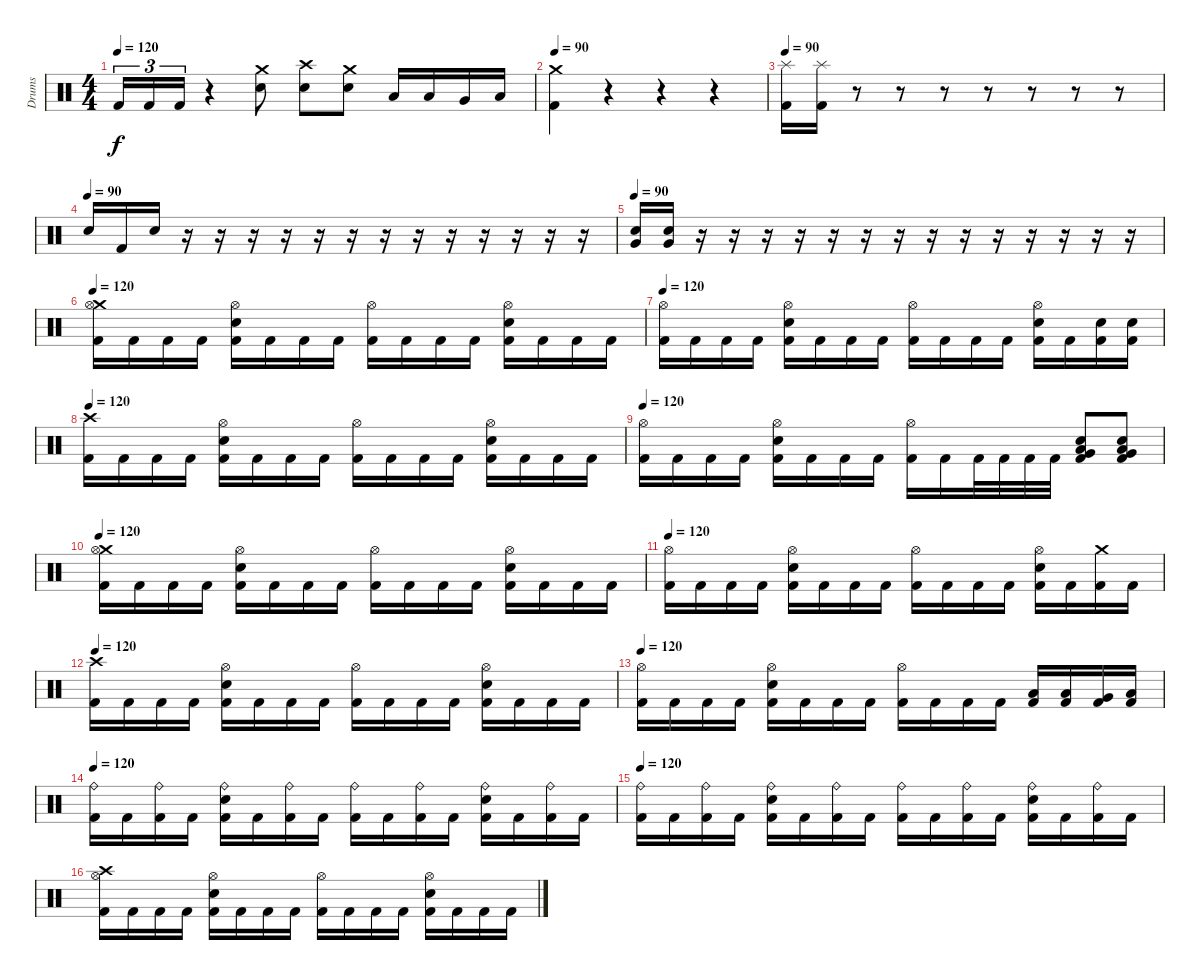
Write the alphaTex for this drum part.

\track ("Drums" "Drums") {instrument percussion}
\staff {score}
\articulation defaults
\ts (4 4)
\tempo 120
\clef neutral
\ks c "Kick (hit) 2".16{tu (3 2) dy f} "Kick (hit) 2".16{tu (3 2)} "Kick (hit) 2".16{tu (3 2)}
r.4 ("Crash medium (hit)" "Electric Snare (hit)").8 ("Crash high (hit)" "Electric Snare (hit)").8 ("Crash medium (hit)" "Electric Snare (hit)").8 "Low Tom (hit)".16 "Low Tom (hit)".16 "Very Low Tom (hit)".16 "Low Floor Tom (hit)".16 |
\tempo 90
("Crash medium (hit)" "Kick (hit) 2").4 r.4 r.4 r.4 |
\tempo 90
("Splash (hit)" "Kick (hit) 2").16 ("Splash (hit)" "Kick (hit) 2").16 r.8 r.8 r.8 r.8 r.8 r.8 r.8 |
\tempo (90)
"Electric Snare (hit)".16 "Kick (hit) 2".16 "Electric Snare (hit)".16 r.16 r.16 r.16 r.16 r.16 r.16 r.16 r.16 r.16 r.16 r.16 r.16 r.16 |
\tempo 90
("Very Low Tom (hit)" "Electric Snare (hit)").16 ("Very Low Tom (hit)" "Electric Snare (hit)").16 r.16 r.16 r.16 r.16 r.16 r.16 r.16 r.16 r.16 r.16 r.16 r.16 r.16 r.16 |
\tempo 120
("Crash medium (hit)" "Hi-Hat (open)" "Kick (hit) 2").16 "Kick (hit) 2".16 "Kick (hit) 2".16 "Kick (hit) 2".16 ("Electric Snare (hit)" "Hi-Hat (open)" "Kick (hit) 2").16 "Kick (hit) 2".16 "Kick (hit) 2".16 "Kick (hit) 2".16 ("Hi-Hat (open)" "Kick (hit) 2").16 "Kick (hit) 2".16 "Kick (hit) 2".16 "Kick (hit) 2".16 ("Hi-Hat (open)" "Electric Snare (hit)" "Kick (hit) 2").16 "Kick (hit) 2".16 "Kick (hit) 2".16 "Kick (hit) 2".16 |
\tempo 120
("Hi-Hat (open)" "Kick (hit) 2").16 "Kick (hit) 2".16 "Kick (hit) 2".16 "Kick (hit) 2".16 ("Electric Snare (hit)" "Hi-Hat (open)" "Kick (hit) 2").16 "Kick (hit) 2".16 "Kick (hit) 2".16 "Kick (hit) 2".16 ("Hi-Hat (open)" "Kick (hit) 2").16 "Kick (hit) 2".16 "Kick (hit) 2".16 "Kick (hit) 2".16 ("Hi-Hat (open)" "Electric Snare (hit)" "Kick (hit) 2").16 "Kick (hit) 2".16 ("Electric Snare (hit)" "Kick (hit) 2").16 ("Electric Snare (hit)" "Kick (hit) 2").16 |
\tempo 120
("Crash high (hit)" "Kick (hit) 2").16 "Kick (hit) 2".16 "Kick (hit) 2".16 "Kick (hit) 2".16 ("Electric Snare (hit)" "Hi-Hat (open)" "Kick (hit) 2").16 "Kick (hit) 2".16 "Kick (hit) 2".16 "Kick (hit) 2".16 ("Hi-Hat (open)" "Kick (hit) 2").16 "Kick (hit) 2".16 "Kick (hit) 2".16 "Kick (hit) 2".16 ("Hi-Hat (open)" "Electric Snare (hit)" "Kick (hit) 2").16 "Kick (hit) 2".16 "Kick (hit) 2".16 "Kick (hit) 2".16 |
\tempo 120
("Hi-Hat (open)" "Kick (hit) 2").16 "Kick (hit) 2".16 "Kick (hit) 2".16 "Kick (hit) 2".16 ("Electric Snare (hit)" "Hi-Hat (open)" "Kick (hit) 2").16 "Kick (hit) 2".16 "Kick (hit) 2".16 "Kick (hit) 2".16 ("Hi-Hat (open)" "Kick (hit) 2").16 "Kick (hit) 2".16 "Kick (hit) 2".32 "Kick (hit) 2".32 "Kick (hit) 2".32 "Kick (hit) 2".32 ("Low Floor Tom (hit)" "Very Low Tom (hit)" "Electric Snare (hit)" "Kick (hit) 2").8 ("Low Floor Tom (hit)" "Very Low Tom (hit)" "Electric Snare (hit)" "Kick (hit) 2").8 |
\tempo 120
("Crash medium (hit)" "Hi-Hat (open)" "Kick (hit) 2").16 "Kick (hit) 2".16 "Kick (hit) 2".16 "Kick (hit) 2".16 ("Electric Snare (hit)" "Hi-Hat (open)" "Kick (hit) 2").16 "Kick (hit) 2".16 "Kick (hit) 2".16 "Kick (hit) 2".16 ("Hi-Hat (open)" "Kick (hit) 2").16 "Kick (hit) 2".16 "Kick (hit) 2".16 "Kick (hit) 2".16 ("Hi-Hat (open)" "Electric Snare (hit)" "Kick (hit) 2").16 "Kick (hit) 2".16 "Kick (hit) 2".16 "Kick (hit) 2".16 |
\tempo 120
("Hi-Hat (open)" "Kick (hit) 2").16 "Kick (hit) 2".16 "Kick (hit) 2".16 "Kick (hit) 2".16 ("Electric Snare (hit)" "Hi-Hat (open)" "Kick (hit) 2").16 "Kick (hit) 2".16 "Kick (hit) 2".16 "Kick (hit) 2".16 ("Hi-Hat (open)" "Kick (hit) 2").16 "Kick (hit) 2".16 "Kick (hit) 2".16 "Kick (hit) 2".16 ("Hi-Hat (open)" "Electric Snare (hit)" "Kick (hit) 2").16 "Kick (hit) 2".16 ("Crash medium (hit)" "Kick (hit) 2").16 "Kick (hit) 2".16 |
\tempo 120
("Crash high (hit)" "Kick (hit) 2").16 "Kick (hit) 2".16 "Kick (hit) 2".16 "Kick (hit) 2".16 ("Electric Snare (hit)" "Hi-Hat (open)" "Kick (hit) 2").16 "Kick (hit) 2".16 "Kick (hit) 2".16 "Kick (hit) 2".16 ("Hi-Hat (open)" "Kick (hit) 2").16 "Kick (hit) 2".16 "Kick (hit) 2".16 "Kick (hit) 2".16 ("Hi-Hat (open)" "Electric Snare (hit)" "Kick (hit) 2").16 "Kick (hit) 2".16 "Kick (hit) 2".16 "Kick (hit) 2".16 |
\tempo 120
("Hi-Hat (open)" "Kick (hit) 2").16 "Kick (hit) 2".16 "Kick (hit) 2".16 "Kick (hit) 2".16 ("Electric Snare (hit)" "Hi-Hat (open)" "Kick (hit) 2").16 "Kick (hit) 2".16 "Kick (hit) 2".16 "Kick (hit) 2".16 ("Hi-Hat (open)" "Kick (hit) 2").16 "Kick (hit) 2".16 "Kick (hit) 2".16 "Kick (hit) 2".16 ("Low Tom (hit)" "Kick (hit) 2").16 ("Low Tom (hit)" "Kick (hit) 2").16 ("Very Low Tom (hit)" "Kick (hit) 2").16 ("Low Floor Tom (hit)" "Kick (hit) 2").16 |
\tempo 120
("Ride (bell)" "Kick (hit) 2").16 "Kick (hit) 2".16 ("Ride (bell)" "Kick (hit) 2").16 "Kick (hit) 2".16 ("Electric Snare (hit)" "Ride (bell)" "Kick (hit) 2").16 "Kick (hit) 2".16 ("Ride (bell)" "Kick (hit) 2").16 "Kick (hit) 2".16 ("Ride (bell)" "Kick (hit) 2").16 "Kick (hit) 2".16 ("Ride (bell)" "Kick (hit) 2").16 "Kick (hit) 2".16 ("Electric Snare (hit)" "Ride (bell)" "Kick (hit) 2").16 "Kick (hit) 2".16 ("Ride (bell)" "Kick (hit) 2").16 "Kick (hit) 2".16 |
\tempo 120
("Ride (bell)" "Kick (hit) 2").16 "Kick (hit) 2".16 ("Ride (bell)" "Kick (hit) 2").16 "Kick (hit) 2".16 ("Electric Snare (hit)" "Ride (bell)" "Kick (hit) 2").16 "Kick (hit) 2".16 ("Ride (bell)" "Kick (hit) 2").16 "Kick (hit) 2".16 ("Ride (bell)" "Kick (hit) 2").16 "Kick (hit) 2".16 ("Ride (bell)" "Kick (hit) 2").16 "Kick (hit) 2".16 ("Electric Snare (hit)" "Ride (bell)" "Kick (hit) 2").16 "Kick (hit) 2".16 ("Ride (bell)" "Kick (hit) 2").16 "Kick (hit) 2".16 |
("Crash high (hit)" "Hi-Hat (open)" "Kick (hit) 2").16 "Kick (hit) 2".16 "Kick (hit) 2".16 "Kick (hit) 2".16 ("Electric Snare (hit)" "Hi-Hat (open)" "Kick (hit) 2").16 "Kick (hit) 2".16 "Kick (hit) 2".16 "Kick (hit) 2".16 ("Hi-Hat (open)" "Kick (hit) 2").16 "Kick (hit) 2".16 "Kick (hit) 2".16 "Kick (hit) 2".16 ("Hi-Hat (open)" "Electric Snare (hit)" "Kick (hit) 2").16 "Kick (hit) 2".16 "Kick (hit) 2".16 "Kick (hit) 2".16
